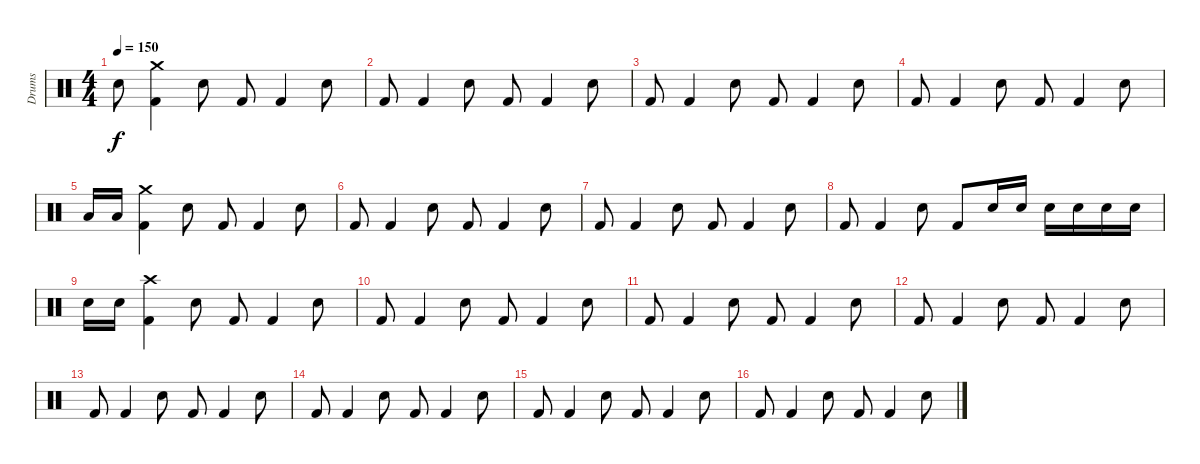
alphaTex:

\track ("Drums" "Drums") {instrument percussion}
\staff {score}
\articulation defaults
\ts (4 4)
\tempo 150
\clef neutral
\ks c "Snare (hit) 2".8{dy f}
("Crash medium (hit)" "Kick (hit) 2").4 "Snare (hit) 2".8 "Kick (hit) 2".8 "Kick (hit) 2".4 "Snare (hit) 2".8 |
"Kick (hit) 2".8 "Kick (hit) 2".4 "Snare (hit) 2".8 "Kick (hit) 2".8 "Kick (hit) 2".4 "Snare (hit) 2".8 |
"Kick (hit) 2".8 "Kick (hit) 2".4 "Snare (hit) 2".8 "Kick (hit) 2".8 "Kick (hit) 2".4 "Snare (hit) 2".8 |
"Kick (hit) 2".8 "Kick (hit) 2".4 "Snare (hit) 2".8 "Kick (hit) 2".8 "Kick (hit) 2".4 "Snare (hit) 2".8 |
"Low Tom (hit)".16 "Low Floor Tom (hit)".16 ("Crash medium (hit)" "Kick (hit) 2").4 "Snare (hit) 2".8 "Kick (hit) 2".8 "Kick (hit) 2".4 "Snare (hit) 2".8 |
"Kick (hit) 2".8 "Kick (hit) 2".4 "Snare (hit) 2".8 "Kick (hit) 2".8 "Kick (hit) 2".4 "Snare (hit) 2".8 |
"Kick (hit) 2".8 "Kick (hit) 2".4 "Snare (hit) 2".8 "Kick (hit) 2".8 "Kick (hit) 2".4 "Snare (hit) 2".8 |
"Kick (hit) 2".8 "Kick (hit) 2".4 "Snare (hit) 2".8 "Kick (hit) 2".8 "Snare (hit) 2".16 "Snare (hit) 2".16 "Snare (hit) 2".16 "Snare (hit) 2".16 "Snare (hit) 2".16 "Snare (hit) 2".16 |
"Snare (hit) 2".16 "Snare (hit) 2".16 ("Crash high (hit)" "Kick (hit) 2").4 "Snare (hit) 2".8 "Kick (hit) 2".8 "Kick (hit) 2".4 "Snare (hit) 2".8 |
"Kick (hit) 2".8 "Kick (hit) 2".4 "Snare (hit) 2".8 "Kick (hit) 2".8 "Kick (hit) 2".4 "Snare (hit) 2".8 |
"Kick (hit) 2".8 "Kick (hit) 2".4 "Snare (hit) 2".8 "Kick (hit) 2".8 "Kick (hit) 2".4 "Snare (hit) 2".8 |
"Kick (hit) 2".8 "Kick (hit) 2".4 "Snare (hit) 2".8 "Kick (hit) 2".8 "Kick (hit) 2".4 "Snare (hit) 2".8 |
"Kick (hit) 2".8 "Kick (hit) 2".4 "Snare (hit) 2".8 "Kick (hit) 2".8 "Kick (hit) 2".4 "Snare (hit) 2".8 |
"Kick (hit) 2".8 "Kick (hit) 2".4 "Snare (hit) 2".8 "Kick (hit) 2".8 "Kick (hit) 2".4 "Snare (hit) 2".8 |
"Kick (hit) 2".8 "Kick (hit) 2".4 "Snare (hit) 2".8 "Kick (hit) 2".8 "Kick (hit) 2".4 "Snare (hit) 2".8 |
"Kick (hit) 2".8 "Kick (hit) 2".4 "Snare (hit) 2".8 "Kick (hit) 2".8 "Kick (hit) 2".4 "Snare (hit) 2".8
